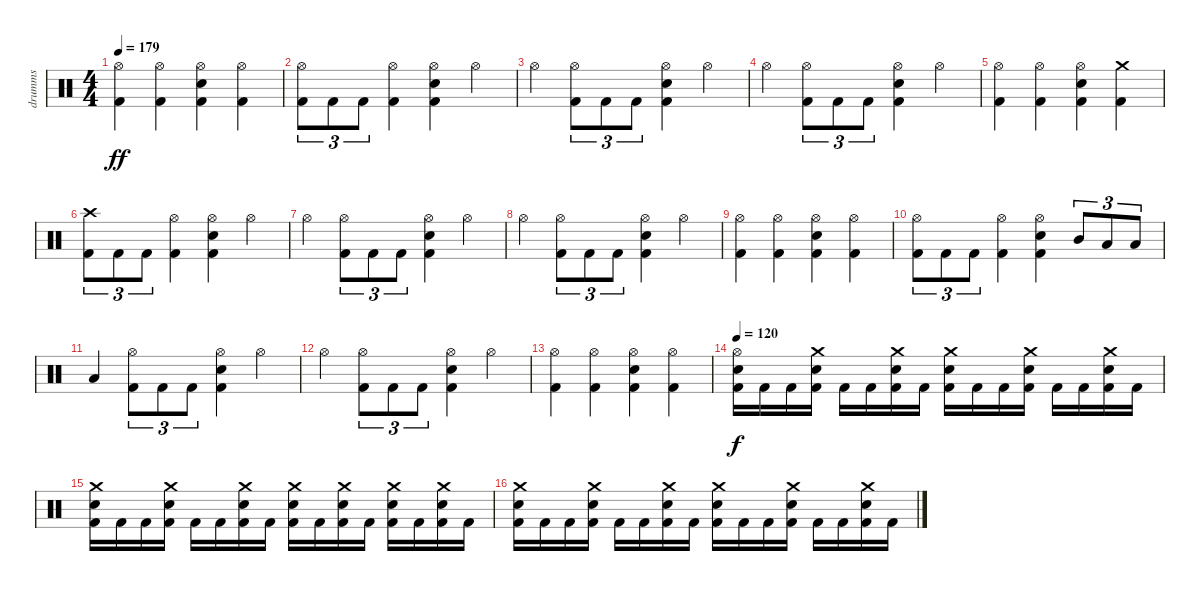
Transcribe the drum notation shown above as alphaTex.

\track ("drumms" "drumms") {instrument percussion}
\staff {score}
\articulation defaults
\ts (4 4)
\tempo 179
\clef neutral
\ks c
("Hi-Hat (open)" "Kick (hit) 2").4{dy ff} ("Hi-Hat (open)" "Kick (hit) 2").4 ("Hi-Hat (open)" "Electric Snare (hit)" "Kick (hit) 2").4 ("Hi-Hat (open)" "Kick (hit) 2").4 |
("Hi-Hat (open)" "Kick (hit) 2").8{tu (3 2)} "Kick (hit) 2".8{tu (3 2)} "Kick (hit) 2".8{tu (3 2)} ("Hi-Hat (open)" "Kick (hit) 2").4 ("Hi-Hat (open)" "Electric Snare (hit)" "Kick (hit) 2").4 "Hi-Hat (open)".4 |
"Hi-Hat (open)".4 ("Hi-Hat (open)" "Kick (hit) 2").8{tu (3 2)} "Kick (hit) 2".8{tu (3 2)} "Kick (hit) 2".8{tu (3 2)} ("Hi-Hat (open)" "Electric Snare (hit)" "Kick (hit) 2").4 "Hi-Hat (open)".4 |
"Hi-Hat (open)".4 ("Hi-Hat (open)" "Kick (hit) 2").8{tu (3 2)} "Kick (hit) 2".8{tu (3 2)} "Kick (hit) 2".8{tu (3 2)} ("Hi-Hat (open)" "Electric Snare (hit)" "Kick (hit) 2").4 "Hi-Hat (open)".4 |
("Hi-Hat (open)" "Kick (hit) 2").4 ("Hi-Hat (open)" "Kick (hit) 2").4 ("Hi-Hat (open)" "Electric Snare (hit)" "Kick (hit) 2").4 ("Crash medium (hit)" "Kick (hit) 2").4 |
("Crash high (hit)" "Kick (hit) 2").8{tu (3 2)} "Kick (hit) 2".8{tu (3 2)} "Kick (hit) 2".8{tu (3 2)} ("Hi-Hat (open)" "Kick (hit) 2").4 ("Hi-Hat (open)" "Electric Snare (hit)" "Kick (hit) 2").4 "Hi-Hat (open)".4 |
"Hi-Hat (open)".4 ("Hi-Hat (open)" "Kick (hit) 2").8{tu (3 2)} "Kick (hit) 2".8{tu (3 2)} "Kick (hit) 2".8{tu (3 2)} ("Hi-Hat (open)" "Electric Snare (hit)" "Kick (hit) 2").4 "Hi-Hat (open)".4 |
"Hi-Hat (open)".4 ("Hi-Hat (open)" "Kick (hit) 2").8{tu (3 2)} "Kick (hit) 2".8{tu (3 2)} "Kick (hit) 2".8{tu (3 2)} ("Hi-Hat (open)" "Electric Snare (hit)" "Kick (hit) 2").4 "Hi-Hat (open)".4 |
("Hi-Hat (open)" "Kick (hit) 2").4 ("Hi-Hat (open)" "Kick (hit) 2").4 ("Hi-Hat (open)" "Electric Snare (hit)" "Kick (hit) 2").4 ("Hi-Hat (open)" "Kick (hit) 2").4 |
("Hi-Hat (open)" "Kick (hit) 2").8{tu (3 2)} "Kick (hit) 2".8{tu (3 2)} "Kick (hit) 2".8{tu (3 2)} ("Hi-Hat (open)" "Kick (hit) 2").4 ("Hi-Hat (open)" "Electric Snare (hit)" "Kick (hit) 2").4 "Mid Tom (hit)".8{tu (3 2)} "Low Tom (hit)".8{tu (3 2)} "Low Tom (hit)".8{tu (3 2)} |
"Low Tom (hit)".4 ("Hi-Hat (open)" "Kick (hit) 2").8{tu (3 2)} "Kick (hit) 2".8{tu (3 2)} "Kick (hit) 2".8{tu (3 2)} ("Hi-Hat (open)" "Electric Snare (hit)" "Kick (hit) 2").4 "Hi-Hat (open)".4 |
"Hi-Hat (open)".4 ("Hi-Hat (open)" "Kick (hit) 2").8{tu (3 2)} "Kick (hit) 2".8{tu (3 2)} "Kick (hit) 2".8{tu (3 2)} ("Hi-Hat (open)" "Electric Snare (hit)" "Kick (hit) 2").4 "Hi-Hat (open)".4 |
("Hi-Hat (open)" "Kick (hit) 2").4 ("Hi-Hat (open)" "Kick (hit) 2").4 ("Hi-Hat (open)" "Electric Snare (hit)" "Kick (hit) 2").4 ("Hi-Hat (open)" "Kick (hit) 2").4 |
\tempo 120
("Hi-Hat (open)" "Electric Snare (hit)" "Kick (hit) 2").16{dy f} "Kick (hit) 2".16 "Kick (hit) 2".16 ("Crash medium (hit)" "Electric Snare (hit)" "Kick (hit) 2").16 "Kick (hit) 2".16 "Kick (hit) 2".16 ("Crash medium (hit)" "Electric Snare (hit)" "Kick (hit) 2").16 "Kick (hit) 2".16 ("Crash medium (hit)" "Electric Snare (hit)" "Kick (hit) 2").16 "Kick (hit) 2".16 "Kick (hit) 2".16 ("Crash medium (hit)" "Electric Snare (hit)" "Kick (hit) 2").16 "Kick (hit) 2".16 "Kick (hit) 2".16 ("Crash medium (hit)" "Electric Snare (hit)" "Kick (hit) 2").16 "Kick (hit) 2".16 |
("Crash medium (hit)" "Electric Snare (hit)" "Kick (hit) 2").16 "Kick (hit) 2".16 "Kick (hit) 2".16 ("Crash medium (hit)" "Electric Snare (hit)" "Kick (hit) 2").16 "Kick (hit) 2".16 "Kick (hit) 2".16 ("Crash medium (hit)" "Electric Snare (hit)" "Kick (hit) 2").16 "Kick (hit) 2".16 ("Crash medium (hit)" "Electric Snare (hit)" "Kick (hit) 2").16 "Kick (hit) 2".16 ("Crash medium (hit)" "Electric Snare (hit)" "Kick (hit) 2").16 "Kick (hit) 2".16 ("Crash medium (hit)" "Electric Snare (hit)" "Kick (hit) 2").16 "Kick (hit) 2".16 ("Crash medium (hit)" "Electric Snare (hit)" "Kick (hit) 2").16 "Kick (hit) 2".16 |
("Crash medium (hit)" "Electric Snare (hit)" "Kick (hit) 2").16 "Kick (hit) 2".16 "Kick (hit) 2".16 ("Crash medium (hit)" "Electric Snare (hit)" "Kick (hit) 2").16 "Kick (hit) 2".16 "Kick (hit) 2".16 ("Crash medium (hit)" "Electric Snare (hit)" "Kick (hit) 2").16 "Kick (hit) 2".16 ("Crash medium (hit)" "Electric Snare (hit)" "Kick (hit) 2").16 "Kick (hit) 2".16 "Kick (hit) 2".16 ("Crash medium (hit)" "Electric Snare (hit)" "Kick (hit) 2").16 "Kick (hit) 2".16 "Kick (hit) 2".16 ("Crash medium (hit)" "Electric Snare (hit)" "Kick (hit) 2").16 "Kick (hit) 2".16
